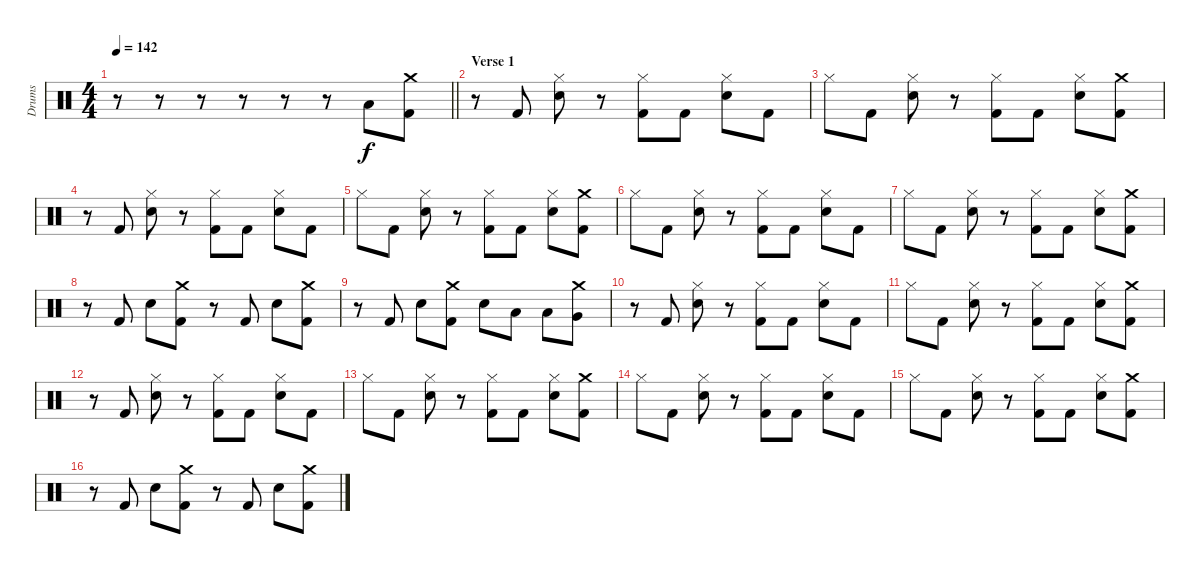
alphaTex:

\track ("Drums" "Drums") {instrument percussion}
\staff {score}
\articulation defaults
\ts (4 4)
\tempo 142
\clef neutral
\barLineRight lightlight
\ks c
r.8{dy f} r.8 r.8 r.8 r.8 r.8 "Low Floor Tom (hit)".8 ("Crash medium (hit)" "Kick (hit) 2").8 |
\section ("" "Verse 1")
r.8 "Kick (hit) 2".8 ("Hi-Hat (closed)" "Electric Snare (hit)").8 r.8 ("Hi-Hat (closed)" "Kick (hit) 2").8 "Kick (hit) 2".8 ("Hi-Hat (closed)" "Electric Snare (hit)").8 "Kick (hit) 2".8 |
"Hi-Hat (closed)".8 "Kick (hit) 2".8 ("Hi-Hat (closed)" "Electric Snare (hit)").8 r.8 ("Hi-Hat (closed)" "Kick (hit) 2").8 "Kick (hit) 2".8 ("Hi-Hat (closed)" "Electric Snare (hit)").8 ("Crash medium (hit)" "Kick (hit) 2").8 |
r.8 "Kick (hit) 2".8 ("Hi-Hat (closed)" "Electric Snare (hit)").8 r.8 ("Hi-Hat (closed)" "Kick (hit) 2").8 "Kick (hit) 2".8 ("Hi-Hat (closed)" "Electric Snare (hit)").8 "Kick (hit) 2".8 |
"Hi-Hat (closed)".8 "Kick (hit) 2".8 ("Hi-Hat (closed)" "Electric Snare (hit)").8 r.8 ("Hi-Hat (closed)" "Kick (hit) 2").8 "Kick (hit) 2".8 ("Hi-Hat (closed)" "Electric Snare (hit)").8 ("Crash medium (hit)" "Kick (hit) 2").8 |
"Hi-Hat (closed)".8 "Kick (hit) 2".8 ("Hi-Hat (closed)" "Electric Snare (hit)").8 r.8 ("Hi-Hat (closed)" "Kick (hit) 2").8 "Kick (hit) 2".8 ("Hi-Hat (closed)" "Electric Snare (hit)").8 "Kick (hit) 2".8 |
"Hi-Hat (closed)".8 "Kick (hit) 2".8 ("Hi-Hat (closed)" "Electric Snare (hit)").8 r.8 ("Hi-Hat (closed)" "Kick (hit) 2").8 "Kick (hit) 2".8 ("Hi-Hat (closed)" "Electric Snare (hit)").8 ("Crash medium (hit)" "Kick (hit) 2").8 |
r.8 "Kick (hit) 2".8 "Electric Snare (hit)".8 ("Crash medium (hit)" "Kick (hit) 2").8 r.8 "Kick (hit) 2".8 "Electric Snare (hit)".8 ("Crash medium (hit)" "Kick (hit) 2").8 |
r.8 "Kick (hit) 2".8 "Electric Snare (hit)".8 ("Crash medium (hit)" "Kick (hit) 2").8 "Electric Snare (hit)".8 "Low Tom (hit)".8 "Low Tom (hit)".8 ("Crash medium (hit)" "Very Low Tom (hit)").8 |
r.8 "Kick (hit) 2".8 ("Hi-Hat (closed)" "Electric Snare (hit)").8 r.8 ("Hi-Hat (closed)" "Kick (hit) 2").8 "Kick (hit) 2".8 ("Hi-Hat (closed)" "Electric Snare (hit)").8 "Kick (hit) 2".8 |
"Hi-Hat (closed)".8 "Kick (hit) 2".8 ("Hi-Hat (closed)" "Electric Snare (hit)").8 r.8 ("Hi-Hat (closed)" "Kick (hit) 2").8 "Kick (hit) 2".8 ("Hi-Hat (closed)" "Electric Snare (hit)").8 ("Crash medium (hit)" "Kick (hit) 2").8 |
r.8 "Kick (hit) 2".8 ("Hi-Hat (closed)" "Electric Snare (hit)").8 r.8 ("Hi-Hat (closed)" "Kick (hit) 2").8 "Kick (hit) 2".8 ("Hi-Hat (closed)" "Electric Snare (hit)").8 "Kick (hit) 2".8 |
"Hi-Hat (closed)".8 "Kick (hit) 2".8 ("Hi-Hat (closed)" "Electric Snare (hit)").8 r.8 ("Hi-Hat (closed)" "Kick (hit) 2").8 "Kick (hit) 2".8 ("Hi-Hat (closed)" "Electric Snare (hit)").8 ("Crash medium (hit)" "Kick (hit) 2").8 |
"Hi-Hat (closed)".8 "Kick (hit) 2".8 ("Hi-Hat (closed)" "Electric Snare (hit)").8 r.8 ("Hi-Hat (closed)" "Kick (hit) 2").8 "Kick (hit) 2".8 ("Hi-Hat (closed)" "Electric Snare (hit)").8 "Kick (hit) 2".8 |
"Hi-Hat (closed)".8 "Kick (hit) 2".8 ("Hi-Hat (closed)" "Electric Snare (hit)").8 r.8 ("Hi-Hat (closed)" "Kick (hit) 2").8 "Kick (hit) 2".8 ("Hi-Hat (closed)" "Electric Snare (hit)").8 ("Crash medium (hit)" "Kick (hit) 2").8 |
r.8 "Kick (hit) 2".8 "Electric Snare (hit)".8 ("Crash medium (hit)" "Kick (hit) 2").8 r.8 "Kick (hit) 2".8 "Electric Snare (hit)".8 ("Crash medium (hit)" "Kick (hit) 2").8
